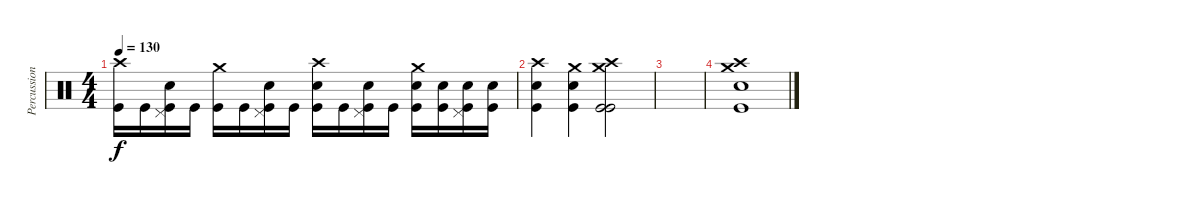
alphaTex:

\track ("Percussion" "Percussion") {instrument percussion}
\staff {score}
\articulation defaults
\ts (4 4)
\tempo 130
\clef neutral
\ks c
("Crash high (hit)" "Kick (hit)").16{dy f} "Kick (hit)".16 ("Pedal Hi-Hat (hit)" "Snare (hit) 2" "Kick (hit)").16 "Kick (hit)".16 ("Crash medium (hit)" "Kick (hit)").16 "Kick (hit)".16 ("Pedal Hi-Hat (hit)" "Snare (hit) 2" "Kick (hit)").16 "Kick (hit)".16 ("Crash high (hit)" "Snare (hit) 2" "Kick (hit)").16 "Kick (hit)".16 ("Pedal Hi-Hat (hit)" "Snare (hit) 2" "Kick (hit)").16 "Kick (hit)".16 ("Crash medium (hit)" "Snare (hit) 2" "Kick (hit)").16 ("Snare (hit) 2" "Kick (hit)").16 ("Pedal Hi-Hat (hit)" "Snare (hit) 2" "Kick (hit)").16 ("Snare (hit) 2" "Kick (hit)").16 |
("Crash high (hit)" "Snare (hit) 2" "Kick (hit)").4 ("Crash medium (hit)" "Snare (hit) 2" "Kick (hit)").4 ("Crash medium (hit)" "Crash high (hit)" "Kick (hit)" "Kick (hit)").2 |
|
("Kick (hit)" "Snare (hit) 2" "Crash high (hit)" "Crash medium (hit)").1
